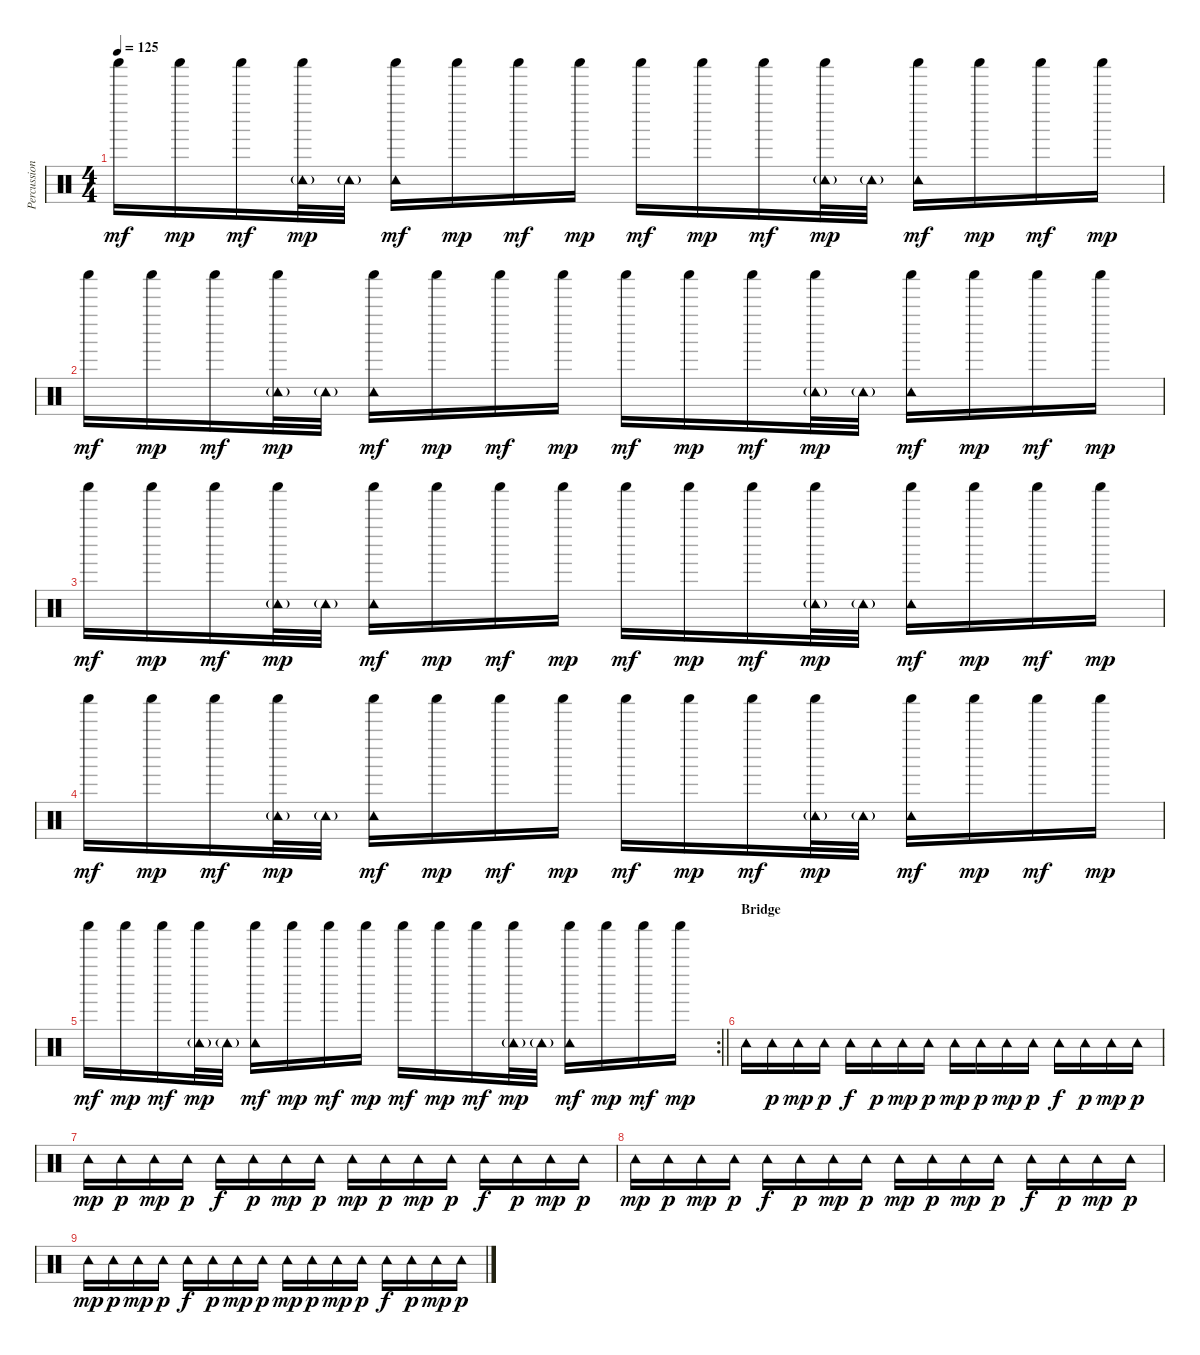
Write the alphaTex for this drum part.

\track ("Percussion" "Percussion") {instrument percussion}
\staff {score}
\articulation defaults
\ts (4 4)
\tempo 125
\clef neutral
\ks c "Shaker (hit)".16{dy mf} "Shaker (hit)".16{dy mp} "Shaker (hit)".16{dy mf}
("Tambourine (hit)"{g} "Shaker (hit)").32{dy mp} "Tambourine (hit)"{g}.32 ("Tambourine (hit)" "Shaker (hit)").16{dy mf} "Shaker (hit)".16{dy mp} "Shaker (hit)".16{dy mf} "Shaker (hit)".16{dy mp} "Shaker (hit)".16{dy mf} "Shaker (hit)".16{dy mp} "Shaker (hit)".16{dy mf} ("Tambourine (hit)"{g} "Shaker (hit)").32{dy mp} "Tambourine (hit)"{g}.32 ("Tambourine (hit)" "Shaker (hit)").16{dy mf} "Shaker (hit)".16{dy mp} "Shaker (hit)".16{dy mf} "Shaker (hit)".16{dy mp} |
"Shaker (hit)".16{dy mf} "Shaker (hit)".16{dy mp} "Shaker (hit)".16{dy mf} ("Tambourine (hit)"{g} "Shaker (hit)").32{dy mp} "Tambourine (hit)"{g}.32 ("Tambourine (hit)" "Shaker (hit)").16{dy mf} "Shaker (hit)".16{dy mp} "Shaker (hit)".16{dy mf} "Shaker (hit)".16{dy mp} "Shaker (hit)".16{dy mf} "Shaker (hit)".16{dy mp} "Shaker (hit)".16{dy mf} ("Tambourine (hit)"{g} "Shaker (hit)").32{dy mp} "Tambourine (hit)"{g}.32 ("Tambourine (hit)" "Shaker (hit)").16{dy mf} "Shaker (hit)".16{dy mp} "Shaker (hit)".16{dy mf} "Shaker (hit)".16{dy mp} |
"Shaker (hit)".16{dy mf} "Shaker (hit)".16{dy mp} "Shaker (hit)".16{dy mf} ("Tambourine (hit)"{g} "Shaker (hit)").32{dy mp} "Tambourine (hit)"{g}.32 ("Tambourine (hit)" "Shaker (hit)").16{dy mf} "Shaker (hit)".16{dy mp} "Shaker (hit)".16{dy mf} "Shaker (hit)".16{dy mp} "Shaker (hit)".16{dy mf} "Shaker (hit)".16{dy mp} "Shaker (hit)".16{dy mf} ("Tambourine (hit)"{g} "Shaker (hit)").32{dy mp} "Tambourine (hit)"{g}.32 ("Tambourine (hit)" "Shaker (hit)").16{dy mf} "Shaker (hit)".16{dy mp} "Shaker (hit)".16{dy mf} "Shaker (hit)".16{dy mp} |
"Shaker (hit)".16{dy mf} "Shaker (hit)".16{dy mp} "Shaker (hit)".16{dy mf} ("Tambourine (hit)"{g} "Shaker (hit)").32{dy mp} "Tambourine (hit)"{g}.32 ("Tambourine (hit)" "Shaker (hit)").16{dy mf} "Shaker (hit)".16{dy mp} "Shaker (hit)".16{dy mf} "Shaker (hit)".16{dy mp} "Shaker (hit)".16{dy mf} "Shaker (hit)".16{dy mp} "Shaker (hit)".16{dy mf} ("Tambourine (hit)"{g} "Shaker (hit)").32{dy mp} "Tambourine (hit)"{g}.32 ("Tambourine (hit)" "Shaker (hit)").16{dy mf} "Shaker (hit)".16{dy mp} "Shaker (hit)".16{dy mf} "Shaker (hit)".16{dy mp} |
\rc 2
\barLineRight lightlight "Shaker (hit)".16{dy mf} "Shaker (hit)".16{dy mp} "Shaker (hit)".16{dy mf}
("Tambourine (hit)"{g} "Shaker (hit)").32{dy mp} "Tambourine (hit)"{g}.32 ("Tambourine (hit)" "Shaker (hit)").16{dy mf} "Shaker (hit)".16{dy mp} "Shaker (hit)".16{dy mf} "Shaker (hit)".16{dy mp} "Shaker (hit)".16{dy mf} "Shaker (hit)".16{dy mp} "Shaker (hit)".16{dy mf} ("Tambourine (hit)"{g} "Shaker (hit)").32{dy mp} "Tambourine (hit)"{g}.32 ("Tambourine (hit)" "Shaker (hit)").16{dy mf} "Shaker (hit)".16{dy mp} "Shaker (hit)".16{dy mf} "Shaker (hit)".16{dy mp} |
\section ("" "Bridge")
"Tambourine (hit)".16 "Tambourine (hit)".16{dy p} "Tambourine (hit)".16{dy mp} "Tambourine (hit)".16{dy p} "Tambourine (hit)".16{dy f} "Tambourine (hit)".16{dy p} "Tambourine (hit)".16{dy mp} "Tambourine (hit)".16{dy p} "Tambourine (hit)".16{dy mp} "Tambourine (hit)".16{dy p} "Tambourine (hit)".16{dy mp} "Tambourine (hit)".16{dy p} "Tambourine (hit)".16{dy f} "Tambourine (hit)".16{dy p} "Tambourine (hit)".16{dy mp} "Tambourine (hit)".16{dy p} |
"Tambourine (hit)".16{dy mp} "Tambourine (hit)".16{dy p} "Tambourine (hit)".16{dy mp} "Tambourine (hit)".16{dy p} "Tambourine (hit)".16{dy f} "Tambourine (hit)".16{dy p} "Tambourine (hit)".16{dy mp} "Tambourine (hit)".16{dy p} "Tambourine (hit)".16{dy mp} "Tambourine (hit)".16{dy p} "Tambourine (hit)".16{dy mp} "Tambourine (hit)".16{dy p} "Tambourine (hit)".16{dy f} "Tambourine (hit)".16{dy p} "Tambourine (hit)".16{dy mp} "Tambourine (hit)".16{dy p} |
"Tambourine (hit)".16{dy mp} "Tambourine (hit)".16{dy p} "Tambourine (hit)".16{dy mp} "Tambourine (hit)".16{dy p} "Tambourine (hit)".16{dy f} "Tambourine (hit)".16{dy p} "Tambourine (hit)".16{dy mp} "Tambourine (hit)".16{dy p} "Tambourine (hit)".16{dy mp} "Tambourine (hit)".16{dy p} "Tambourine (hit)".16{dy mp} "Tambourine (hit)".16{dy p} "Tambourine (hit)".16{dy f} "Tambourine (hit)".16{dy p} "Tambourine (hit)".16{dy mp} "Tambourine (hit)".16{dy p} |
"Tambourine (hit)".16{dy mp} "Tambourine (hit)".16{dy p} "Tambourine (hit)".16{dy mp} "Tambourine (hit)".16{dy p} "Tambourine (hit)".16{dy f} "Tambourine (hit)".16{dy p} "Tambourine (hit)".16{dy mp} "Tambourine (hit)".16{dy p} "Tambourine (hit)".16{dy mp} "Tambourine (hit)".16{dy p} "Tambourine (hit)".16{dy mp} "Tambourine (hit)".16{dy p} "Tambourine (hit)".16{dy f} "Tambourine (hit)".16{dy p} "Tambourine (hit)".16{dy mp} "Tambourine (hit)".16{dy p}
